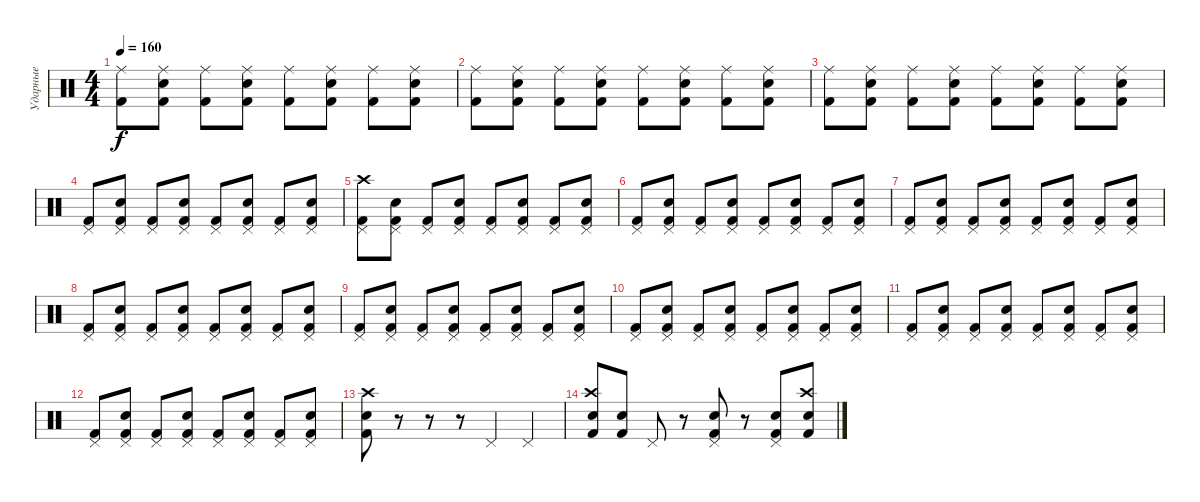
\track ("Ударные" "Ударные") {instrument percussion}
\staff {score}
\articulation defaults
\ts (4 4)
\tempo 160
\clef neutral
\ks c
("Kick (hit) 2" "Ride (middle)").8{dy f} ("Kick (hit) 2" "Snare (hit) 2" "Ride (middle)").8 ("Kick (hit) 2" "Ride (middle)").8 ("Kick (hit) 2" "Snare (hit) 2" "Ride (middle)").8 ("Kick (hit) 2" "Ride (middle)").8 ("Kick (hit) 2" "Snare (hit) 2" "Ride (middle)").8 ("Kick (hit) 2" "Ride (middle)").8 ("Kick (hit) 2" "Snare (hit) 2" "Ride (middle)").8 |
("Kick (hit) 2" "Ride (middle)").8 ("Kick (hit) 2" "Snare (hit) 2" "Ride (middle)").8 ("Kick (hit) 2" "Ride (middle)").8 ("Kick (hit) 2" "Snare (hit) 2" "Ride (middle)").8 ("Kick (hit) 2" "Ride (middle)").8 ("Kick (hit) 2" "Snare (hit) 2" "Ride (middle)").8 ("Kick (hit) 2" "Ride (middle)").8 ("Kick (hit) 2" "Snare (hit) 2" "Ride (middle)").8 |
("Kick (hit) 2" "Ride (middle)").8 ("Kick (hit) 2" "Snare (hit) 2" "Ride (middle)").8 ("Kick (hit) 2" "Ride (middle)").8 ("Kick (hit) 2" "Snare (hit) 2" "Ride (middle)").8 ("Kick (hit) 2" "Ride (middle)").8 ("Kick (hit) 2" "Snare (hit) 2" "Ride (middle)").8 ("Kick (hit) 2" "Ride (middle)").8 ("Kick (hit) 2" "Snare (hit) 2" "Ride (middle)").8 |
("Kick (hit) 2" "Pedal Hi-Hat (hit)").8 ("Kick (hit) 2" "Snare (hit) 2" "Pedal Hi-Hat (hit)").8 ("Kick (hit) 2" "Pedal Hi-Hat (hit)").8 ("Kick (hit) 2" "Snare (hit) 2" "Pedal Hi-Hat (hit)").8 ("Kick (hit) 2" "Pedal Hi-Hat (hit)").8 ("Kick (hit) 2" "Snare (hit) 2" "Pedal Hi-Hat (hit)").8 ("Kick (hit) 2" "Pedal Hi-Hat (hit)").8 ("Kick (hit) 2" "Snare (hit) 2" "Pedal Hi-Hat (hit)").8 |
("Kick (hit) 2" "Pedal Hi-Hat (hit)" "Crash high (hit)").8 ("Kick (hit) 2" "Snare (hit) 2" "Pedal Hi-Hat (hit)").8 ("Kick (hit) 2" "Pedal Hi-Hat (hit)").8 ("Kick (hit) 2" "Snare (hit) 2" "Pedal Hi-Hat (hit)").8 ("Kick (hit) 2" "Pedal Hi-Hat (hit)").8 ("Kick (hit) 2" "Snare (hit) 2" "Pedal Hi-Hat (hit)").8 ("Kick (hit) 2" "Pedal Hi-Hat (hit)").8 ("Kick (hit) 2" "Snare (hit) 2" "Pedal Hi-Hat (hit)").8 |
("Kick (hit) 2" "Pedal Hi-Hat (hit)").8 ("Kick (hit) 2" "Snare (hit) 2" "Pedal Hi-Hat (hit)").8 ("Kick (hit) 2" "Pedal Hi-Hat (hit)").8 ("Kick (hit) 2" "Snare (hit) 2" "Pedal Hi-Hat (hit)").8 ("Kick (hit) 2" "Pedal Hi-Hat (hit)").8 ("Kick (hit) 2" "Snare (hit) 2" "Pedal Hi-Hat (hit)").8 ("Kick (hit) 2" "Pedal Hi-Hat (hit)").8 ("Kick (hit) 2" "Snare (hit) 2" "Pedal Hi-Hat (hit)").8 |
("Kick (hit) 2" "Pedal Hi-Hat (hit)").8 ("Kick (hit) 2" "Snare (hit) 2" "Pedal Hi-Hat (hit)").8 ("Kick (hit) 2" "Pedal Hi-Hat (hit)").8 ("Kick (hit) 2" "Snare (hit) 2" "Pedal Hi-Hat (hit)").8 ("Kick (hit) 2" "Pedal Hi-Hat (hit)").8 ("Kick (hit) 2" "Snare (hit) 2" "Pedal Hi-Hat (hit)").8 ("Kick (hit) 2" "Pedal Hi-Hat (hit)").8 ("Kick (hit) 2" "Snare (hit) 2" "Pedal Hi-Hat (hit)").8 |
("Kick (hit) 2" "Pedal Hi-Hat (hit)").8 ("Kick (hit) 2" "Snare (hit) 2" "Pedal Hi-Hat (hit)").8 ("Kick (hit) 2" "Pedal Hi-Hat (hit)").8 ("Kick (hit) 2" "Snare (hit) 2" "Pedal Hi-Hat (hit)").8 ("Kick (hit) 2" "Pedal Hi-Hat (hit)").8 ("Kick (hit) 2" "Snare (hit) 2" "Pedal Hi-Hat (hit)").8 ("Kick (hit) 2" "Pedal Hi-Hat (hit)").8 ("Kick (hit) 2" "Snare (hit) 2" "Pedal Hi-Hat (hit)").8 |
("Kick (hit) 2" "Pedal Hi-Hat (hit)").8 ("Kick (hit) 2" "Snare (hit) 2" "Pedal Hi-Hat (hit)").8 ("Kick (hit) 2" "Pedal Hi-Hat (hit)").8 ("Kick (hit) 2" "Snare (hit) 2" "Pedal Hi-Hat (hit)").8 ("Kick (hit) 2" "Pedal Hi-Hat (hit)").8 ("Kick (hit) 2" "Snare (hit) 2" "Pedal Hi-Hat (hit)").8 ("Kick (hit) 2" "Pedal Hi-Hat (hit)").8 ("Kick (hit) 2" "Snare (hit) 2" "Pedal Hi-Hat (hit)").8 |
("Kick (hit) 2" "Pedal Hi-Hat (hit)").8 ("Kick (hit) 2" "Snare (hit) 2" "Pedal Hi-Hat (hit)").8 ("Kick (hit) 2" "Pedal Hi-Hat (hit)").8 ("Kick (hit) 2" "Snare (hit) 2" "Pedal Hi-Hat (hit)").8 ("Kick (hit) 2" "Pedal Hi-Hat (hit)").8 ("Kick (hit) 2" "Snare (hit) 2" "Pedal Hi-Hat (hit)").8 ("Kick (hit) 2" "Pedal Hi-Hat (hit)").8 ("Kick (hit) 2" "Snare (hit) 2" "Pedal Hi-Hat (hit)").8 |
("Kick (hit) 2" "Pedal Hi-Hat (hit)").8 ("Kick (hit) 2" "Snare (hit) 2" "Pedal Hi-Hat (hit)").8 ("Kick (hit) 2" "Pedal Hi-Hat (hit)").8 ("Kick (hit) 2" "Snare (hit) 2" "Pedal Hi-Hat (hit)").8 ("Kick (hit) 2" "Pedal Hi-Hat (hit)").8 ("Kick (hit) 2" "Snare (hit) 2" "Pedal Hi-Hat (hit)").8 ("Kick (hit) 2" "Pedal Hi-Hat (hit)").8 ("Kick (hit) 2" "Snare (hit) 2" "Pedal Hi-Hat (hit)").8 |
("Kick (hit) 2" "Pedal Hi-Hat (hit)").8 ("Kick (hit) 2" "Snare (hit) 2" "Pedal Hi-Hat (hit)").8 ("Kick (hit) 2" "Pedal Hi-Hat (hit)").8 ("Kick (hit) 2" "Snare (hit) 2" "Pedal Hi-Hat (hit)").8 ("Kick (hit) 2" "Pedal Hi-Hat (hit)").8 ("Kick (hit) 2" "Snare (hit) 2" "Pedal Hi-Hat (hit)").8 ("Kick (hit) 2" "Pedal Hi-Hat (hit)").8 ("Kick (hit) 2" "Snare (hit) 2" "Pedal Hi-Hat (hit)").8 |
("Kick (hit) 2" "Snare (hit) 2" "Crash high (hit)").8 r.8 r.8 r.8 "Pedal Hi-Hat (hit)".4 "Pedal Hi-Hat (hit)".4 |
("Crash high (hit)" "Electric Snare (hit)" "Kick (hit) 2").8 ("Electric Snare (hit)" "Kick (hit) 2").8 "Pedal Hi-Hat (hit)".8 r.8 ("Pedal Hi-Hat (hit)" "Electric Snare (hit)" "Kick (hit) 2").8 r.8 ("Pedal Hi-Hat (hit)" "Electric Snare (hit)" "Kick (hit) 2").8 ("Crash high (hit)" "Electric Snare (hit)" "Kick (hit) 2").8
